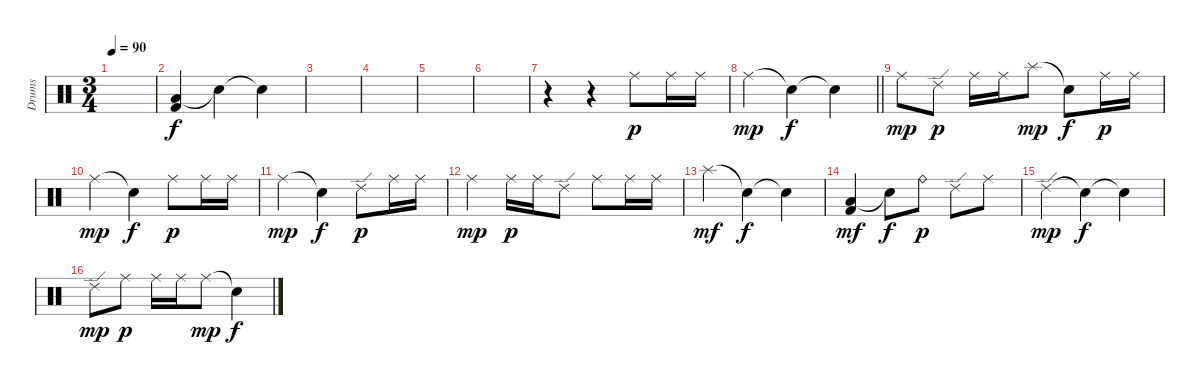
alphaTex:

\track ("Drums" "Drums") {instrument percussion}
\staff {score}
\articulation defaults
\ts (3 4)
\tempo 90
\clef neutral
\ks c
|
("Low Tom (hit)" "Kick (hit) 2").4 "Snare (hit)"{t}.4{dy f} "Snare (hit)"{t}.4 |
|
|
|
|
r.4 r.4 "Ride (middle)".8{dy p} "Ride (middle)".16 "Ride (middle)".16 |
\barLineRight lightlight "Ride (middle)".4{dy mp} "Snare (hit)"{t}.4{dy f} "Snare (hit)"{t}.4
|
\section ("" "")
"Ride (middle)".8{dy mp} "Ride (edge) 2".8{dy p} "Ride (middle)".16 "Ride (middle)".16 "Splash (hit)".8{dy mp} "Snare (hit)"{t}.8{dy f} "Ride (middle)".16{dy p} "Ride (middle)".16 |
"Ride (middle)".4{dy mp} "Snare (hit)"{t}.4{dy f} "Ride (middle)".8{dy p} "Ride (middle)".16 "Ride (middle)".16 |
"Ride (middle)".4{dy mp} "Snare (hit)"{t}.4{dy f} "Ride (edge) 2".8{dy p} "Ride (middle)".16 "Ride (middle)".16 |
"Ride (middle)".4{dy mp} "Ride (middle)".16{dy p} "Ride (middle)".16 "Ride (edge) 2".8 "Ride (middle)".8 "Ride (middle)".16 "Ride (middle)".16 |
"Splash (hit)".4{dy mf} "Snare (hit)"{t}.4{dy f} "Snare (hit)"{t}.4 |
("Low Tom (hit)" "Kick (hit) 2").4{dy mf} "Snare (hit)"{t}.8{dy f} "Ride (bell)".8{dy p} "Ride (edge) 2".8 "Ride (middle)".8 |
"Ride (edge) 2".4{dy mp} "Snare (hit)"{t}.4{dy f} "Snare (hit)"{t}.4 |
"Ride (edge) 2".8{dy mp} "Ride (middle)".8{dy p} "Ride (middle)".16 "Ride (middle)".16 "Ride (middle)".8{dy mp} "Snare (hit)"{t}.4{dy f}
